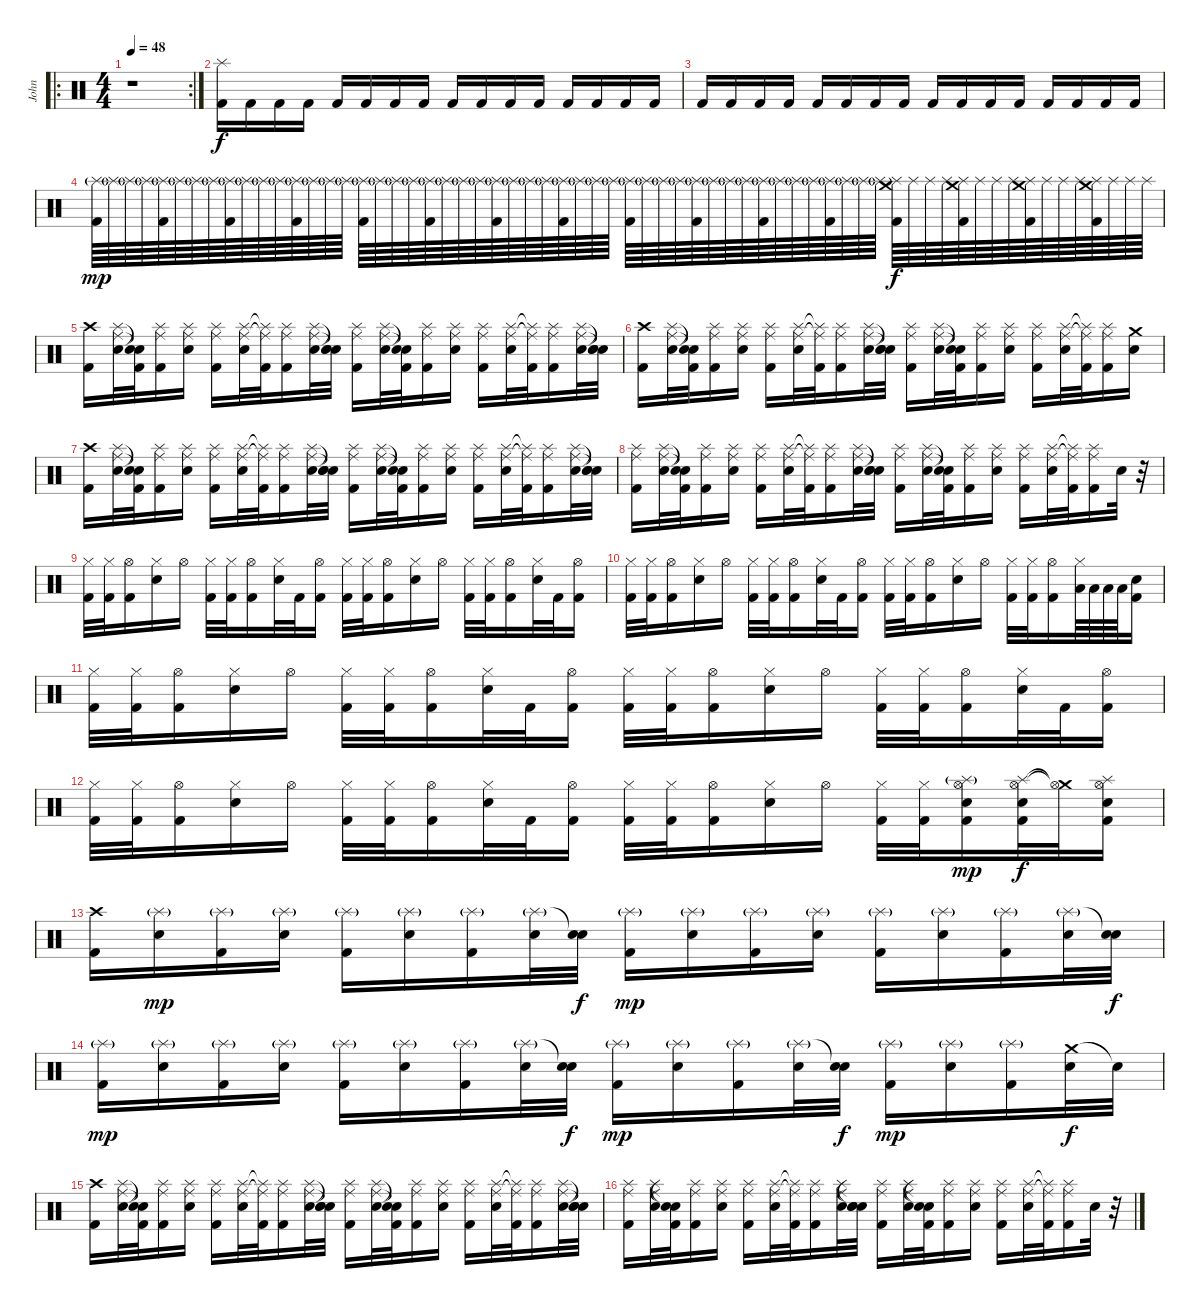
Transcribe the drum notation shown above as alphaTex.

\track ("John" "John") {instrument percussion}
\staff {score}
\articulation defaults
\ro
\rc 2
\ts (4 4)
\tempo 48
\clef neutral
\ks c
r.1{dy f} |
("Splash (hit)" "Kick (hit) 2").16 "Kick (hit) 2".16 "Kick (hit) 2".16 "Kick (hit) 2".16 "Kick (hit) 2".16 "Kick (hit) 2".16 "Kick (hit) 2".16 "Kick (hit) 2".16 "Kick (hit) 2".16 "Kick (hit) 2".16 "Kick (hit) 2".16 "Kick (hit) 2".16 "Kick (hit) 2".16 "Kick (hit) 2".16 "Kick (hit) 2".16 "Kick (hit) 2".16 |
"Kick (hit) 2".16 "Kick (hit) 2".16 "Kick (hit) 2".16 "Kick (hit) 2".16 "Kick (hit) 2".16 "Kick (hit) 2".16 "Kick (hit) 2".16 "Kick (hit) 2".16 "Kick (hit) 2".16 "Kick (hit) 2".16 "Kick (hit) 2".16 "Kick (hit) 2".16 "Kick (hit) 2".16 "Kick (hit) 2".16 "Kick (hit) 2".16 "Kick (hit) 2".16 |
("Splash (hit)"{g} "Kick (hit) 2").64{dy mp} "Splash (hit)"{g}.64 "Splash (hit)"{g}.64 "Splash (hit)"{g}.64 ("Splash (hit)"{g} "Kick (hit) 2").64 "Splash (hit)"{g}.64 "Splash (hit)"{g}.64 "Splash (hit)"{g}.64 ("Splash (hit)"{g} "Kick (hit) 2").64 "Splash (hit)"{g}.64 "Splash (hit)"{g}.64 "Splash (hit)"{g}.64 ("Splash (hit)"{g} "Kick (hit) 2").64 "Splash (hit)"{g}.64 "Splash (hit)"{g}.64 "Splash (hit)"{g}.64 ("Splash (hit)"{g} "Kick (hit) 2").64 "Splash (hit)"{g}.64 "Splash (hit)"{g}.64 "Splash (hit)"{g}.64 ("Splash (hit)"{g} "Kick (hit) 2").64 "Splash (hit)"{g}.64 "Splash (hit)"{g}.64 "Splash (hit)"{g}.64 ("Splash (hit)"{g} "Kick (hit) 2").64 "Splash (hit)"{g}.64 "Splash (hit)"{g}.64 "Splash (hit)"{g}.64 ("Splash (hit)"{g} "Kick (hit) 2").64 "Splash (hit)"{g}.64 "Splash (hit)"{g}.64 "Splash (hit)"{g}.64 ("Splash (hit)"{g} "Kick (hit) 2").64 "Splash (hit)"{g}.64 "Splash (hit)"{g}.64 "Splash (hit)"{g}.64 ("Splash (hit)"{g} "Kick (hit) 2").64 "Splash (hit)"{g}.64 "Splash (hit)"{g}.64 "Splash (hit)"{g}.64 ("Splash (hit)"{g} "Kick (hit) 2").64 "Splash (hit)"{g}.64 "Splash (hit)"{g}.64 "Splash (hit)"{g}.64 ("Splash (hit)"{g} "Kick (hit) 2").64 "Splash (hit)"{g}.64 "Splash (hit)"{g}.64 "Splash (hit)"{g}.64 ("Splash (hit)" "Crash medium (hit)" "Kick (hit) 2").64{dy f} "Splash (hit)".64 "Splash (hit)".64 "Splash (hit)".64 ("Splash (hit)" "Crash medium (hit)" "Kick (hit) 2").64 "Splash (hit)".64 "Splash (hit)".64 "Splash (hit)".64 ("Splash (hit)" "Crash medium (hit)" "Kick (hit) 2").64 "Splash (hit)".64 "Splash (hit)".64 "Splash (hit)".64 ("Splash (hit)" "Crash medium (hit)" "Kick (hit) 2").64 "Splash (hit)".64 "Splash (hit)".64 "Splash (hit)".64 |
("Crash high (hit)" "Kick (hit) 2").16 ("Splash (hit)" "Ride (middle)" "Electric Snare (hit)").32 ("Snare (hit)"{t} "Snare (hit)"{t} "Kick (hit) 2").32 ("Splash (hit)" "Ride (middle)" "Kick (hit) 2").16 ("Splash (hit)" "Ride (middle)" "Electric Snare (hit)").16 ("Splash (hit)" "Ride (middle)" "Kick (hit) 2").16 ("Splash (hit)" "Ride (middle)" "Electric Snare (hit)").32 ("Splash (hit)"{t} "Ride (middle)"{t} "Kick (hit) 2").32 ("Splash (hit)" "Ride (middle)" "Kick (hit) 2").16 ("Splash (hit)" "Ride (middle)" "Electric Snare (hit)").32 ("Snare (hit)"{t} "Snare (hit)"{t} "Electric Snare (hit)").32 ("Splash (hit)" "Ride (middle)" "Kick (hit) 2").16 ("Splash (hit)" "Ride (middle)" "Electric Snare (hit)").32 ("Snare (hit)"{t} "Snare (hit)"{t} "Kick (hit) 2").32 ("Splash (hit)" "Ride (middle)" "Kick (hit) 2").16 ("Splash (hit)" "Ride (middle)" "Electric Snare (hit)").16 ("Splash (hit)" "Ride (middle)" "Kick (hit) 2").16 ("Splash (hit)" "Ride (middle)" "Electric Snare (hit)").32 ("Splash (hit)"{t} "Ride (middle)"{t} "Kick (hit) 2").32 ("Splash (hit)" "Ride (middle)" "Kick (hit) 2").16 ("Splash (hit)" "Ride (middle)" "Electric Snare (hit)").32 ("Snare (hit)"{t} "Snare (hit)"{t} "Electric Snare (hit)").32 |
("Crash high (hit)" "Kick (hit) 2").16 ("Splash (hit)" "Ride (middle)" "Electric Snare (hit)").32 ("Snare (hit)"{t} "Snare (hit)"{t} "Kick (hit) 2").32 ("Splash (hit)" "Ride (middle)" "Kick (hit) 2").16 ("Splash (hit)" "Ride (middle)" "Electric Snare (hit)").16 ("Splash (hit)" "Ride (middle)" "Kick (hit) 2").16 ("Splash (hit)" "Ride (middle)" "Electric Snare (hit)").32 ("Splash (hit)"{t} "Ride (middle)"{t} "Kick (hit) 2").32 ("Splash (hit)" "Ride (middle)" "Kick (hit) 2").16 ("Splash (hit)" "Ride (middle)" "Electric Snare (hit)").32 ("Snare (hit)"{t} "Snare (hit)"{t} "Electric Snare (hit)").32 ("Splash (hit)" "Ride (middle)" "Kick (hit) 2").16 ("Splash (hit)" "Ride (middle)" "Electric Snare (hit)").32 ("Snare (hit)"{t} "Snare (hit)"{t} "Kick (hit) 2").32 ("Splash (hit)" "Ride (middle)" "Kick (hit) 2").16 ("Splash (hit)" "Ride (middle)" "Electric Snare (hit)").16 ("Splash (hit)" "Ride (middle)" "Kick (hit) 2").16 ("Splash (hit)" "Ride (middle)" "Electric Snare (hit)").32 ("Splash (hit)"{t} "Ride (middle)"{t} "Kick (hit) 2").32 ("Splash (hit)" "Ride (middle)" "Kick (hit) 2").16 ("Crash medium (hit)" "Electric Snare (hit)").16 |
("Crash high (hit)" "Kick (hit) 2").16 ("Splash (hit)" "Ride (middle)" "Electric Snare (hit)").32 ("Snare (hit)"{t} "Snare (hit)"{t} "Kick (hit) 2").32 ("Splash (hit)" "Ride (middle)" "Kick (hit) 2").16 ("Splash (hit)" "Ride (middle)" "Electric Snare (hit)").16 ("Splash (hit)" "Ride (middle)" "Kick (hit) 2").16 ("Splash (hit)" "Ride (middle)" "Electric Snare (hit)").32 ("Splash (hit)"{t} "Ride (middle)"{t} "Kick (hit) 2").32 ("Splash (hit)" "Ride (middle)" "Kick (hit) 2").16 ("Splash (hit)" "Ride (middle)" "Electric Snare (hit)").32 ("Snare (hit)"{t} "Snare (hit)"{t} "Electric Snare (hit)").32 ("Splash (hit)" "Ride (middle)" "Kick (hit) 2").16 ("Splash (hit)" "Ride (middle)" "Electric Snare (hit)").32 ("Snare (hit)"{t} "Snare (hit)"{t} "Kick (hit) 2").32 ("Splash (hit)" "Ride (middle)" "Kick (hit) 2").16 ("Splash (hit)" "Ride (middle)" "Electric Snare (hit)").16 ("Splash (hit)" "Ride (middle)" "Kick (hit) 2").16 ("Splash (hit)" "Ride (middle)" "Electric Snare (hit)").32 ("Splash (hit)"{t} "Ride (middle)"{t} "Kick (hit) 2").32 ("Splash (hit)" "Ride (middle)" "Kick (hit) 2").16 ("Splash (hit)" "Ride (middle)" "Electric Snare (hit)").32 ("Snare (hit)"{t} "Snare (hit)"{t} "Electric Snare (hit)").32 |
("Splash (hit)" "Ride (middle)" "Kick (hit) 2").16 ("Splash (hit)" "Ride (middle)" "Electric Snare (hit)").32 ("Snare (hit)"{t} "Snare (hit)"{t} "Kick (hit) 2").32 ("Splash (hit)" "Ride (middle)" "Kick (hit) 2").16 ("Splash (hit)" "Ride (middle)" "Electric Snare (hit)").16 ("Splash (hit)" "Ride (middle)" "Kick (hit) 2").16 ("Splash (hit)" "Ride (middle)" "Electric Snare (hit)").32 ("Splash (hit)"{t} "Ride (middle)"{t} "Kick (hit) 2").32 ("Splash (hit)" "Ride (middle)" "Kick (hit) 2").16 ("Splash (hit)" "Ride (middle)" "Electric Snare (hit)").32 ("Snare (hit)"{t} "Snare (hit)"{t} "Electric Snare (hit)").32 ("Splash (hit)" "Ride (middle)" "Kick (hit) 2").16 ("Splash (hit)" "Ride (middle)" "Electric Snare (hit)").32 ("Snare (hit)"{t} "Snare (hit)"{t} "Kick (hit) 2").32 ("Splash (hit)" "Ride (middle)" "Kick (hit) 2").16 ("Splash (hit)" "Ride (middle)" "Electric Snare (hit)").16 ("Splash (hit)" "Ride (middle)" "Kick (hit) 2").16 ("Splash (hit)" "Ride (middle)" "Electric Snare (hit)").32 ("Splash (hit)"{t} "Ride (middle)"{t} "Kick (hit) 2").32 ("Splash (hit)" "Ride (middle)" "Kick (hit) 2").16 "Electric Snare (hit)".32 r.32 |
("Hi-Hat (closed)" "Kick (hit) 2").32 ("Hi-Hat (closed)" "Kick (hit) 2").32 ("Hi-Hat (open)" "Kick (hit) 2").16 ("Hi-Hat (closed)" "Electric Snare (hit)").16 "Hi-Hat (open)".16 ("Hi-Hat (closed)" "Kick (hit) 2").32 ("Hi-Hat (closed)" "Kick (hit) 2").32 ("Hi-Hat (open)" "Kick (hit) 2").16 ("Hi-Hat (closed)" "Electric Snare (hit)").32 "Kick (hit) 2".32 ("Hi-Hat (open)" "Kick (hit) 2").16 ("Hi-Hat (closed)" "Kick (hit) 2").32 ("Hi-Hat (closed)" "Kick (hit) 2").32 ("Hi-Hat (open)" "Kick (hit) 2").16 ("Hi-Hat (closed)" "Electric Snare (hit)").16 "Hi-Hat (open)".16 ("Hi-Hat (closed)" "Kick (hit) 2").32 ("Hi-Hat (closed)" "Kick (hit) 2").32 ("Hi-Hat (open)" "Kick (hit) 2").16 ("Hi-Hat (closed)" "Electric Snare (hit)").32 "Kick (hit) 2".32 ("Hi-Hat (open)" "Kick (hit) 2").16 |
("Hi-Hat (closed)" "Kick (hit) 2").32 ("Hi-Hat (closed)" "Kick (hit) 2").32 ("Hi-Hat (open)" "Kick (hit) 2").16 ("Hi-Hat (closed)" "Electric Snare (hit)").16 "Hi-Hat (open)".16 ("Hi-Hat (closed)" "Kick (hit) 2").32 ("Hi-Hat (closed)" "Kick (hit) 2").32 ("Hi-Hat (open)" "Kick (hit) 2").16 ("Hi-Hat (closed)" "Electric Snare (hit)").32 "Kick (hit) 2".32 ("Hi-Hat (open)" "Kick (hit) 2").16 ("Hi-Hat (closed)" "Kick (hit) 2").32 ("Hi-Hat (closed)" "Kick (hit) 2").32 ("Hi-Hat (open)" "Kick (hit) 2").16 ("Hi-Hat (closed)" "Electric Snare (hit)").16 "Hi-Hat (open)".16 ("Hi-Hat (closed)" "Kick (hit) 2").32 ("Hi-Hat (closed)" "Kick (hit) 2").32 ("Hi-Hat (open)" "Kick (hit) 2").16 ("Hi-Hat (closed)" "Low Tom (hit)").64 "Low Tom (hit)".64 "Low Tom (hit)".64 "Low Tom (hit)".64 ("Electric Snare (hit)" "Kick (hit) 2").16 |
("Hi-Hat (closed)" "Kick (hit) 2").32 ("Hi-Hat (closed)" "Kick (hit) 2").32 ("Hi-Hat (open)" "Kick (hit) 2").16 ("Hi-Hat (closed)" "Electric Snare (hit)").16 "Hi-Hat (open)".16 ("Hi-Hat (closed)" "Kick (hit) 2").32 ("Hi-Hat (closed)" "Kick (hit) 2").32 ("Hi-Hat (open)" "Kick (hit) 2").16 ("Hi-Hat (closed)" "Electric Snare (hit)").32 "Kick (hit) 2".32 ("Hi-Hat (open)" "Kick (hit) 2").16 ("Hi-Hat (closed)" "Kick (hit) 2").32 ("Hi-Hat (closed)" "Kick (hit) 2").32 ("Hi-Hat (open)" "Kick (hit) 2").16 ("Hi-Hat (closed)" "Electric Snare (hit)").16 "Hi-Hat (open)".16 ("Hi-Hat (closed)" "Kick (hit) 2").32 ("Hi-Hat (closed)" "Kick (hit) 2").32 ("Hi-Hat (open)" "Kick (hit) 2").16 ("Hi-Hat (closed)" "Electric Snare (hit)").32 "Kick (hit) 2".32 ("Hi-Hat (open)" "Kick (hit) 2").16 |
("Hi-Hat (closed)" "Kick (hit) 2").32 ("Hi-Hat (closed)" "Kick (hit) 2").32 ("Hi-Hat (open)" "Kick (hit) 2").16 ("Hi-Hat (closed)" "Electric Snare (hit)").16 "Hi-Hat (open)".16 ("Hi-Hat (closed)" "Kick (hit) 2").32 ("Hi-Hat (closed)" "Kick (hit) 2").32 ("Hi-Hat (open)" "Kick (hit) 2").16 ("Hi-Hat (closed)" "Electric Snare (hit)").32 "Kick (hit) 2".32 ("Hi-Hat (open)" "Kick (hit) 2").16 ("Hi-Hat (closed)" "Kick (hit) 2").32 ("Hi-Hat (closed)" "Kick (hit) 2").32 ("Hi-Hat (open)" "Kick (hit) 2").16 ("Hi-Hat (closed)" "Electric Snare (hit)").16 "Hi-Hat (open)".16 ("Hi-Hat (closed)" "Kick (hit) 2").32 ("Hi-Hat (closed)" "Kick (hit) 2").32 ("Hi-Hat (open)" "Splash (hit)"{g} "Electric Snare (hit)" "Kick (hit) 2").16{dy mp} ("Hi-Hat (open)" "Splash (hit)" "Electric Snare (hit)" "Kick (hit) 2").32{dy f} ("Crash medium (hit)"{t} "Hi-Hat (open)"{t}).32 ("Hi-Hat (open)" "Splash (hit)" "Electric Snare (hit)" "Kick (hit) 2").16 |
("Crash high (hit)" "Kick (hit) 2").16 ("Splash (hit)"{g} "Electric Snare (hit)").16{dy mp} ("Splash (hit)"{g} "Kick (hit) 2").16 ("Splash (hit)"{g} "Electric Snare (hit)").16 ("Splash (hit)"{g} "Kick (hit) 2").16 ("Splash (hit)"{g} "Electric Snare (hit)").16 ("Splash (hit)"{g} "Kick (hit) 2").16 ("Splash (hit)"{g} "Electric Snare (hit)").32 ("Snare (hit)"{t} "Electric Snare (hit)").32{dy f} ("Splash (hit)"{g} "Kick (hit) 2").16{dy mp} ("Splash (hit)"{g} "Electric Snare (hit)").16 ("Splash (hit)"{g} "Kick (hit) 2").16 ("Splash (hit)"{g} "Electric Snare (hit)").16 ("Splash (hit)"{g} "Kick (hit) 2").16 ("Splash (hit)"{g} "Electric Snare (hit)").16 ("Splash (hit)"{g} "Kick (hit) 2").16 ("Splash (hit)"{g} "Electric Snare (hit)").32 ("Snare (hit)"{t} "Electric Snare (hit)").32{dy f} |
("Splash (hit)"{g} "Kick (hit) 2").16{dy mp} ("Splash (hit)"{g} "Electric Snare (hit)").16 ("Splash (hit)"{g} "Kick (hit) 2").16 ("Splash (hit)"{g} "Electric Snare (hit)").16 ("Splash (hit)"{g} "Kick (hit) 2").16 ("Splash (hit)"{g} "Electric Snare (hit)").16 ("Splash (hit)"{g} "Kick (hit) 2").16 ("Splash (hit)"{g} "Electric Snare (hit)").32 ("Snare (hit)"{t} "Electric Snare (hit)").32{dy f} ("Splash (hit)"{g} "Kick (hit) 2").16{dy mp} ("Splash (hit)"{g} "Electric Snare (hit)").16 ("Splash (hit)"{g} "Kick (hit) 2").16 ("Splash (hit)"{g} "Electric Snare (hit)").32 ("Snare (hit)"{t} "Electric Snare (hit)").32{dy f} ("Splash (hit)"{g} "Kick (hit) 2").16{dy mp} ("Splash (hit)"{g} "Electric Snare (hit)").16 ("Splash (hit)"{g} "Kick (hit) 2").16 ("Crash medium (hit)" "Electric Snare (hit)").32{dy f} "Snare (hit)"{t}.32 |
("Crash high (hit)" "Kick (hit) 2").16 ("Splash (hit)" "Ride (middle)" "Electric Snare (hit)").32 ("Snare (hit)"{t} "Snare (hit)"{t} "Kick (hit) 2").32 ("Splash (hit)" "Ride (middle)" "Kick (hit) 2").16 ("Splash (hit)" "Ride (middle)" "Electric Snare (hit)").16 ("Splash (hit)" "Ride (middle)" "Kick (hit) 2").16 ("Splash (hit)" "Ride (middle)" "Electric Snare (hit)").32 ("Splash (hit)"{t} "Ride (middle)"{t} "Kick (hit) 2").32 ("Splash (hit)" "Ride (middle)" "Kick (hit) 2").16 ("Splash (hit)" "Ride (middle)" "Electric Snare (hit)").32 ("Snare (hit)"{t} "Snare (hit)"{t} "Electric Snare (hit)").32 ("Splash (hit)" "Ride (middle)" "Kick (hit) 2").16 ("Splash (hit)" "Ride (middle)" "Electric Snare (hit)").32 ("Snare (hit)"{t} "Snare (hit)"{t} "Kick (hit) 2").32 ("Splash (hit)" "Ride (middle)" "Kick (hit) 2").16 ("Splash (hit)" "Ride (middle)" "Electric Snare (hit)").16 ("Splash (hit)" "Ride (middle)" "Kick (hit) 2").16 ("Splash (hit)" "Ride (middle)" "Electric Snare (hit)").32 ("Splash (hit)"{t} "Ride (middle)"{t} "Kick (hit) 2").32 ("Splash (hit)" "Ride (middle)" "Kick (hit) 2").16 ("Splash (hit)" "Ride (middle)" "Electric Snare (hit)").32 ("Snare (hit)"{t} "Snare (hit)"{t} "Electric Snare (hit)").32 |
("Splash (hit)" "Ride (middle)" "Kick (hit) 2").16 ("Splash (hit)" "Ride (middle)" "Electric Snare (hit)").32 ("Snare (hit)"{t} "Snare (hit)"{t} "Kick (hit) 2").32 ("Splash (hit)" "Ride (middle)" "Kick (hit) 2").16 ("Splash (hit)" "Ride (middle)" "Electric Snare (hit)").16 ("Splash (hit)" "Ride (middle)" "Kick (hit) 2").16 ("Splash (hit)" "Ride (middle)" "Electric Snare (hit)").32 ("Splash (hit)"{t} "Ride (middle)"{t} "Kick (hit) 2").32 ("Splash (hit)" "Ride (middle)" "Kick (hit) 2").16 ("Splash (hit)" "Ride (middle)" "Electric Snare (hit)").32 ("Snare (hit)"{t} "Snare (hit)"{t} "Electric Snare (hit)").32 ("Splash (hit)" "Ride (middle)" "Kick (hit) 2").16 ("Splash (hit)" "Ride (middle)" "Electric Snare (hit)").32 ("Snare (hit)"{t} "Snare (hit)"{t} "Kick (hit) 2").32 ("Splash (hit)" "Ride (middle)" "Kick (hit) 2").16 ("Splash (hit)" "Ride (middle)" "Electric Snare (hit)").16 ("Splash (hit)" "Ride (middle)" "Kick (hit) 2").16 ("Splash (hit)" "Ride (middle)" "Electric Snare (hit)").32 ("Splash (hit)"{t} "Ride (middle)"{t} "Kick (hit) 2").32 ("Splash (hit)" "Ride (middle)" "Kick (hit) 2").16 "Electric Snare (hit)".32 r.32
